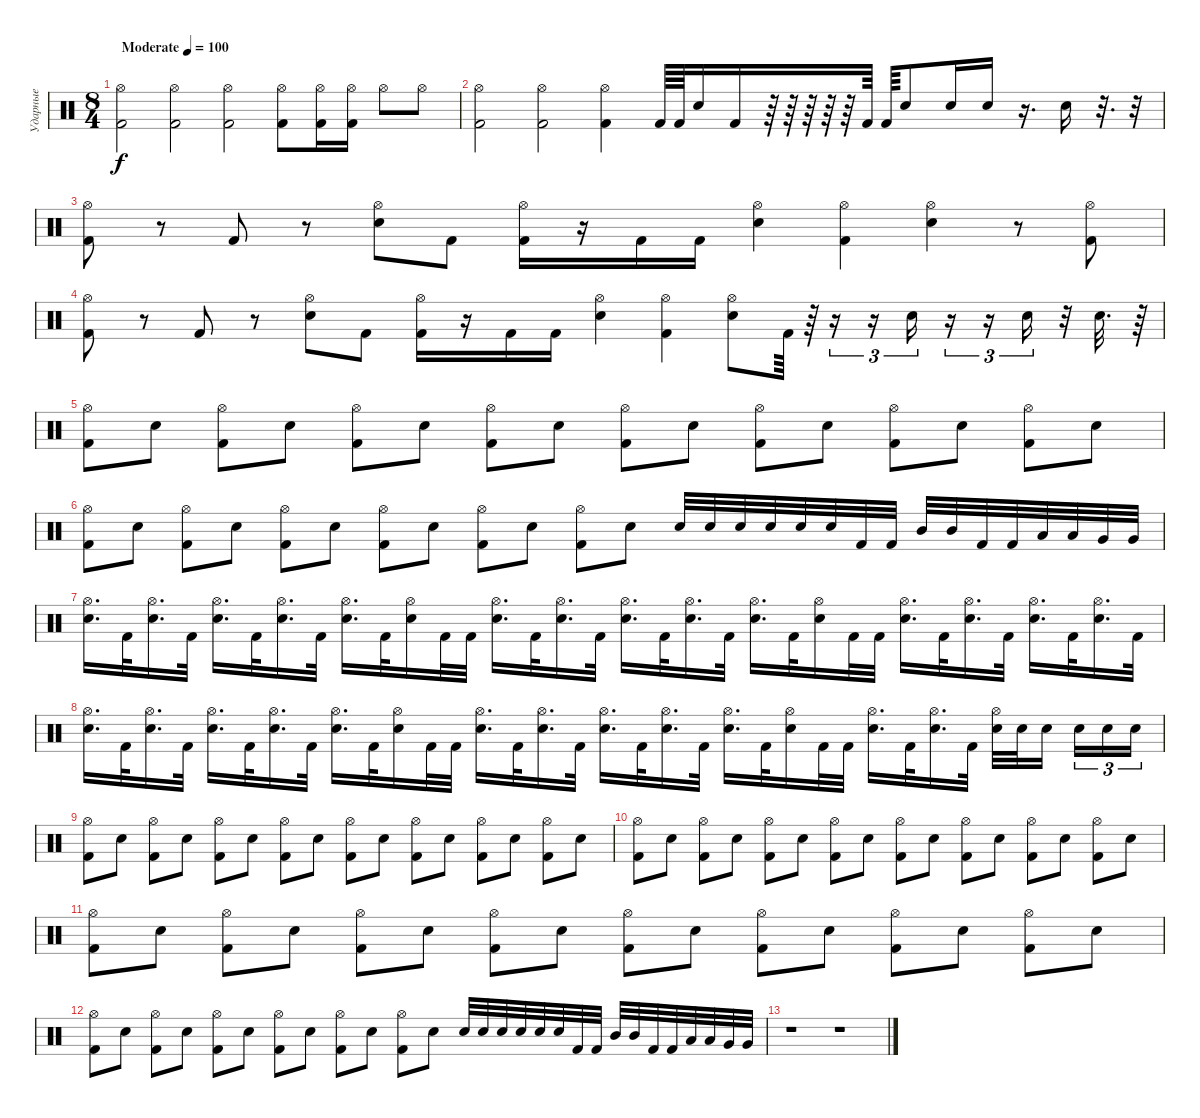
\track ("Ударные" "Ударные") {instrument percussion}
\staff {score}
\articulation defaults
\ts (8 4)
\tempo (100 "Moderate")
\clef neutral
\ks c
("Hi-Hat (open)" "Kick (hit) 2").2{dy f} ("Hi-Hat (open)" "Kick (hit) 2").2 ("Hi-Hat (open)" "Kick (hit) 2").2 ("Hi-Hat (open)" "Kick (hit) 2").8 ("Hi-Hat (open)" "Kick (hit) 2").16 ("Hi-Hat (open)" "Kick (hit) 2").16 "Hi-Hat (open)".8 "Hi-Hat (open)".8 |
("Hi-Hat (open)" "Kick (hit) 2").2 ("Hi-Hat (open)" "Kick (hit) 2").2 ("Hi-Hat (open)" "Kick (hit) 2").4 "Kick (hit) 2".64 "Kick (hit) 2".64 "Electric Snare (hit)".16 "Kick (hit) 2".16 r.64 r.64 r.64 r.64 r.64 "Kick (hit) 2".64 "Kick (hit) 2".64 "Electric Snare (hit)".8 "Electric Snare (hit)".16 "Electric Snare (hit)".16 r.16{d} "Electric Snare (hit)".16 r.32{d} r.32 |
("Hi-Hat (open)" "Kick (hit) 2").8 r.8 "Kick (hit) 2".8 r.8 ("Hi-Hat (open)" "Electric Snare (hit)").8 "Kick (hit) 2".8 ("Hi-Hat (open)" "Kick (hit) 2").16 r.16 "Kick (hit) 2".16 "Kick (hit) 2".16 ("Hi-Hat (open)" "Electric Snare (hit)").4 ("Hi-Hat (open)" "Kick (hit) 2").4 ("Hi-Hat (open)" "Electric Snare (hit)").4 r.8 ("Hi-Hat (open)" "Kick (hit) 2").8 |
("Hi-Hat (open)" "Kick (hit) 2").8 r.8 "Kick (hit) 2".8 r.8 ("Hi-Hat (open)" "Electric Snare (hit)").8 "Kick (hit) 2".8 ("Hi-Hat (open)" "Kick (hit) 2").16 r.16 "Kick (hit) 2".16 "Kick (hit) 2".16 ("Hi-Hat (open)" "Electric Snare (hit)").4 ("Hi-Hat (open)" "Kick (hit) 2").4 ("Hi-Hat (open)" "Electric Snare (hit)").8 "Kick (hit) 2".64 r.64 r.16{tu (3 2)} r.16{tu (3 2)} "Electric Snare (hit)".16{tu (3 2)} r.16{tu (3 2)} r.16{tu (3 2)} "Electric Snare (hit)".16{tu (3 2)} r.32 "Electric Snare (hit)".32{d} r.64 |
("Hi-Hat (open)" "Kick (hit) 2").8 "Electric Snare (hit)".8 ("Hi-Hat (open)" "Kick (hit) 2").8 "Electric Snare (hit)".8 ("Hi-Hat (open)" "Kick (hit) 2").8 "Electric Snare (hit)".8 ("Hi-Hat (open)" "Kick (hit) 2").8 "Electric Snare (hit)".8 ("Hi-Hat (open)" "Kick (hit) 2").8 "Electric Snare (hit)".8 ("Hi-Hat (open)" "Kick (hit) 2").8 "Electric Snare (hit)".8 ("Hi-Hat (open)" "Kick (hit) 2").8 "Electric Snare (hit)".8 ("Hi-Hat (open)" "Kick (hit) 2").8 "Electric Snare (hit)".8 |
("Hi-Hat (open)" "Kick (hit) 2").8 "Electric Snare (hit)".8 ("Hi-Hat (open)" "Kick (hit) 2").8 "Electric Snare (hit)".8 ("Hi-Hat (open)" "Kick (hit) 2").8 "Electric Snare (hit)".8 ("Hi-Hat (open)" "Kick (hit) 2").8 "Electric Snare (hit)".8 ("Hi-Hat (open)" "Kick (hit) 2").8 "Electric Snare (hit)".8 ("Hi-Hat (open)" "Kick (hit) 2").8 "Electric Snare (hit)".8 "Electric Snare (hit)".32 "Electric Snare (hit)".32 "Electric Snare (hit)".32 "Electric Snare (hit)".32 "Electric Snare (hit)".32 "Electric Snare (hit)".32 "Kick (hit) 2".32 "Kick (hit) 2".32 "Mid Tom (hit)".32 "Mid Tom (hit)".32 "Kick (hit) 2".32 "Kick (hit) 2".32 "Low Tom (hit)".32 "Low Tom (hit)".32 "Very Low Tom (hit)".32 "Very Low Tom (hit)".32 |
("Hi-Hat (open)" "Electric Snare (hit)").16{d} "Kick (hit) 2".32 ("Hi-Hat (open)" "Electric Snare (hit)").16{d} "Kick (hit) 2".32 ("Hi-Hat (open)" "Electric Snare (hit)").16{d} "Kick (hit) 2".32 ("Hi-Hat (open)" "Electric Snare (hit)").16{d} "Kick (hit) 2".32 ("Hi-Hat (open)" "Electric Snare (hit)").16{d} "Kick (hit) 2".32 ("Hi-Hat (open)" "Electric Snare (hit)").16 "Kick (hit) 2".32 "Kick (hit) 2".32 ("Hi-Hat (open)" "Electric Snare (hit)").16{d} "Kick (hit) 2".32 ("Hi-Hat (open)" "Electric Snare (hit)").16{d} "Kick (hit) 2".32 ("Hi-Hat (open)" "Electric Snare (hit)").16{d} "Kick (hit) 2".32 ("Hi-Hat (open)" "Electric Snare (hit)").16{d} "Kick (hit) 2".32 ("Hi-Hat (open)" "Electric Snare (hit)").16{d} "Kick (hit) 2".32 ("Hi-Hat (open)" "Electric Snare (hit)").16 "Kick (hit) 2".32 "Kick (hit) 2".32 ("Hi-Hat (open)" "Electric Snare (hit)").16{d} "Kick (hit) 2".32 ("Hi-Hat (open)" "Electric Snare (hit)").16{d} "Kick (hit) 2".32 ("Hi-Hat (open)" "Electric Snare (hit)").16{d} "Kick (hit) 2".32 ("Hi-Hat (open)" "Electric Snare (hit)").16{d} "Kick (hit) 2".32 |
("Hi-Hat (open)" "Electric Snare (hit)").16{d} "Kick (hit) 2".32 ("Hi-Hat (open)" "Electric Snare (hit)").16{d} "Kick (hit) 2".32 ("Hi-Hat (open)" "Electric Snare (hit)").16{d} "Kick (hit) 2".32 ("Hi-Hat (open)" "Electric Snare (hit)").16{d} "Kick (hit) 2".32 ("Hi-Hat (open)" "Electric Snare (hit)").16{d} "Kick (hit) 2".32 ("Hi-Hat (open)" "Electric Snare (hit)").16 "Kick (hit) 2".32 "Kick (hit) 2".32 ("Hi-Hat (open)" "Electric Snare (hit)").16{d} "Kick (hit) 2".32 ("Hi-Hat (open)" "Electric Snare (hit)").16{d} "Kick (hit) 2".32 ("Hi-Hat (open)" "Electric Snare (hit)").16{d} "Kick (hit) 2".32 ("Hi-Hat (open)" "Electric Snare (hit)").16{d} "Kick (hit) 2".32 ("Hi-Hat (open)" "Electric Snare (hit)").16{d} "Kick (hit) 2".32 ("Hi-Hat (open)" "Electric Snare (hit)").16 "Kick (hit) 2".32 "Kick (hit) 2".32 ("Hi-Hat (open)" "Electric Snare (hit)").16{d} "Kick (hit) 2".32 ("Hi-Hat (open)" "Electric Snare (hit)").16{d} "Kick (hit) 2".32 ("Hi-Hat (open)" "Electric Snare (hit)").32 "Electric Snare (hit)".32 "Electric Snare (hit)".16{beam splitsecondary} "Electric Snare (hit)".16{tu (3 2)} "Electric Snare (hit)".16{tu (3 2)} "Electric Snare (hit)".16{tu (3 2)} |
("Hi-Hat (open)" "Kick (hit) 2").8 "Electric Snare (hit)".8 ("Hi-Hat (open)" "Kick (hit) 2").8 "Electric Snare (hit)".8 ("Hi-Hat (open)" "Kick (hit) 2").8 "Electric Snare (hit)".8 ("Hi-Hat (open)" "Kick (hit) 2").8 "Electric Snare (hit)".8 ("Hi-Hat (open)" "Kick (hit) 2").8 "Electric Snare (hit)".8 ("Hi-Hat (open)" "Kick (hit) 2").8 "Electric Snare (hit)".8 ("Hi-Hat (open)" "Kick (hit) 2").8 "Electric Snare (hit)".8 ("Hi-Hat (open)" "Kick (hit) 2").8 "Electric Snare (hit)".8 |
("Hi-Hat (open)" "Kick (hit) 2").8 "Electric Snare (hit)".8 ("Hi-Hat (open)" "Kick (hit) 2").8 "Electric Snare (hit)".8 ("Hi-Hat (open)" "Kick (hit) 2").8 "Electric Snare (hit)".8 ("Hi-Hat (open)" "Kick (hit) 2").8 "Electric Snare (hit)".8 ("Hi-Hat (open)" "Kick (hit) 2").8 "Electric Snare (hit)".8 ("Hi-Hat (open)" "Kick (hit) 2").8 "Electric Snare (hit)".8 ("Hi-Hat (open)" "Kick (hit) 2").8 "Electric Snare (hit)".8 ("Hi-Hat (open)" "Kick (hit) 2").8 "Electric Snare (hit)".8 |
("Hi-Hat (open)" "Kick (hit) 2").8 "Electric Snare (hit)".8 ("Hi-Hat (open)" "Kick (hit) 2").8 "Electric Snare (hit)".8 ("Hi-Hat (open)" "Kick (hit) 2").8 "Electric Snare (hit)".8 ("Hi-Hat (open)" "Kick (hit) 2").8 "Electric Snare (hit)".8 ("Hi-Hat (open)" "Kick (hit) 2").8 "Electric Snare (hit)".8 ("Hi-Hat (open)" "Kick (hit) 2").8 "Electric Snare (hit)".8 ("Hi-Hat (open)" "Kick (hit) 2").8 "Electric Snare (hit)".8 ("Hi-Hat (open)" "Kick (hit) 2").8 "Electric Snare (hit)".8 |
("Hi-Hat (open)" "Kick (hit) 2").8 "Electric Snare (hit)".8 ("Hi-Hat (open)" "Kick (hit) 2").8 "Electric Snare (hit)".8 ("Hi-Hat (open)" "Kick (hit) 2").8 "Electric Snare (hit)".8 ("Hi-Hat (open)" "Kick (hit) 2").8 "Electric Snare (hit)".8 ("Hi-Hat (open)" "Kick (hit) 2").8 "Electric Snare (hit)".8 ("Hi-Hat (open)" "Kick (hit) 2").8 "Electric Snare (hit)".8 "Electric Snare (hit)".32 "Electric Snare (hit)".32 "Electric Snare (hit)".32 "Electric Snare (hit)".32 "Electric Snare (hit)".32 "Electric Snare (hit)".32 "Kick (hit) 2".32 "Kick (hit) 2".32 "Mid Tom (hit)".32 "Mid Tom (hit)".32 "Kick (hit) 2".32 "Kick (hit) 2".32 "Low Tom (hit)".32 "Low Tom (hit)".32 "Very Low Tom (hit)".32 "Very Low Tom (hit)".32 |
r.1 r.1
